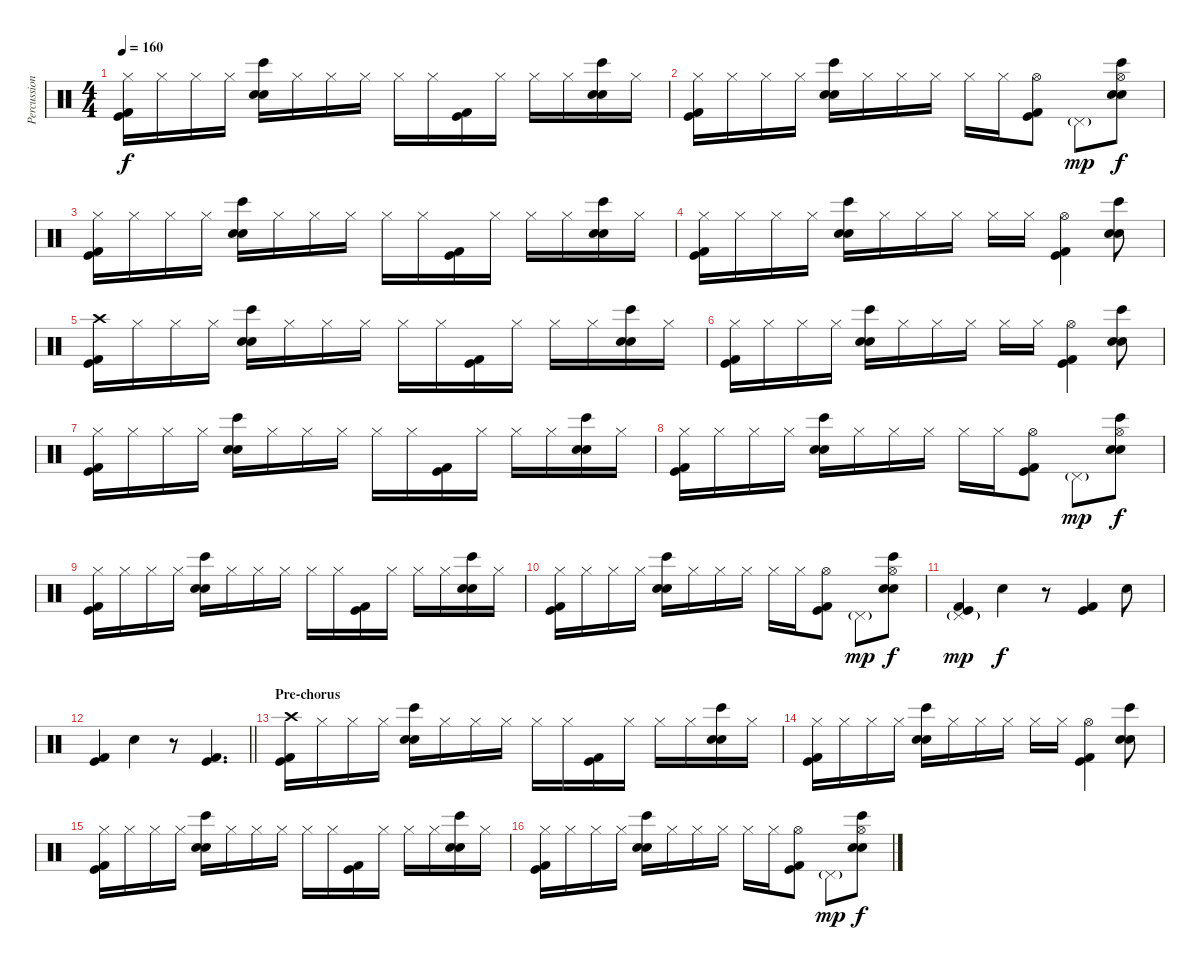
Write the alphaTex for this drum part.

\track ("Percussion" "Percussion") {instrument percussion}
\staff {score}
\articulation defaults
\ts (4 4)
\tempo 160
\clef neutral
\ks c
("Hi-Hat (closed)" "Kick (hit)" "Kick (hit) 2").16{dy f} "Hi-Hat (closed)".16 "Hi-Hat (closed)".16 "Hi-Hat (closed)".16 ("Hand Clap (hit)" "Bongo High (hit)" "Electric Snare (hit)").16 "Hi-Hat (closed)".16 "Hi-Hat (closed)".16 "Hi-Hat (closed)".16 "Hi-Hat (closed)".16 "Hi-Hat (closed)".16 ("Kick (hit)" "Kick (hit) 2").16 "Hi-Hat (closed)".16 "Hi-Hat (closed)".16 "Hi-Hat (closed)".16 ("Hand Clap (hit)" "Bongo High (hit)" "Electric Snare (hit)").16 "Hi-Hat (closed)".16 |
("Hi-Hat (closed)" "Kick (hit)" "Kick (hit) 2").16 "Hi-Hat (closed)".16 "Hi-Hat (closed)".16 "Hi-Hat (closed)".16 ("Hand Clap (hit)" "Bongo High (hit)" "Electric Snare (hit)").16 "Hi-Hat (closed)".16 "Hi-Hat (closed)".16 "Hi-Hat (closed)".16 "Hi-Hat (closed)".16 "Hi-Hat (closed)".16 ("Hi-Hat (open)" "Kick (hit)" "Kick (hit) 2").8 "Pedal Hi-Hat (hit)"{g}.8{dy mp} ("Hi-Hat (open)" "Hand Clap (hit)" "Bongo High (hit)" "Electric Snare (hit)").8{dy f} |
("Hi-Hat (closed)" "Kick (hit)" "Kick (hit) 2").16 "Hi-Hat (closed)".16 "Hi-Hat (closed)".16 "Hi-Hat (closed)".16 ("Hand Clap (hit)" "Bongo High (hit)" "Electric Snare (hit)").16 "Hi-Hat (closed)".16 "Hi-Hat (closed)".16 "Hi-Hat (closed)".16 "Hi-Hat (closed)".16 "Hi-Hat (closed)".16 ("Kick (hit)" "Kick (hit) 2").16 "Hi-Hat (closed)".16 "Hi-Hat (closed)".16 "Hi-Hat (closed)".16 ("Hand Clap (hit)" "Bongo High (hit)" "Electric Snare (hit)").16 "Hi-Hat (closed)".16 |
("Hi-Hat (closed)" "Kick (hit)" "Kick (hit) 2").16 "Hi-Hat (closed)".16 "Hi-Hat (closed)".16 "Hi-Hat (closed)".16 ("Hand Clap (hit)" "Bongo High (hit)" "Electric Snare (hit)").16 "Hi-Hat (closed)".16 "Hi-Hat (closed)".16 "Hi-Hat (closed)".16 "Hi-Hat (closed)".16 "Hi-Hat (closed)".16 ("Hi-Hat (open)" "Kick (hit)" "Kick (hit) 2").4 ("Hand Clap (hit)" "Bongo High (hit)" "Electric Snare (hit)").8 |
("Crash high (hit)" "Kick (hit)" "Kick (hit) 2").16 "Hi-Hat (closed)".16 "Hi-Hat (closed)".16 "Hi-Hat (closed)".16 ("Hand Clap (hit)" "Bongo High (hit)" "Electric Snare (hit)").16 "Hi-Hat (closed)".16 "Hi-Hat (closed)".16 "Hi-Hat (closed)".16 "Hi-Hat (closed)".16 "Hi-Hat (closed)".16 ("Kick (hit)" "Kick (hit) 2").16 "Hi-Hat (closed)".16 "Hi-Hat (closed)".16 "Hi-Hat (closed)".16 ("Hand Clap (hit)" "Bongo High (hit)" "Electric Snare (hit)").16 "Hi-Hat (closed)".16 |
("Hi-Hat (closed)" "Kick (hit)" "Kick (hit) 2").16 "Hi-Hat (closed)".16 "Hi-Hat (closed)".16 "Hi-Hat (closed)".16 ("Hand Clap (hit)" "Bongo High (hit)" "Electric Snare (hit)").16 "Hi-Hat (closed)".16 "Hi-Hat (closed)".16 "Hi-Hat (closed)".16 "Hi-Hat (closed)".16 "Hi-Hat (closed)".16 ("Hi-Hat (open)" "Kick (hit)" "Kick (hit) 2").4 ("Hand Clap (hit)" "Bongo High (hit)" "Electric Snare (hit)").8 |
("Hi-Hat (closed)" "Kick (hit)" "Kick (hit) 2").16 "Hi-Hat (closed)".16 "Hi-Hat (closed)".16 "Hi-Hat (closed)".16 ("Hand Clap (hit)" "Bongo High (hit)" "Electric Snare (hit)").16 "Hi-Hat (closed)".16 "Hi-Hat (closed)".16 "Hi-Hat (closed)".16 "Hi-Hat (closed)".16 "Hi-Hat (closed)".16 ("Kick (hit)" "Kick (hit) 2").16 "Hi-Hat (closed)".16 "Hi-Hat (closed)".16 "Hi-Hat (closed)".16 ("Hand Clap (hit)" "Bongo High (hit)" "Electric Snare (hit)").16 "Hi-Hat (closed)".16 |
("Hi-Hat (closed)" "Kick (hit)" "Kick (hit) 2").16 "Hi-Hat (closed)".16 "Hi-Hat (closed)".16 "Hi-Hat (closed)".16 ("Hand Clap (hit)" "Bongo High (hit)" "Electric Snare (hit)").16 "Hi-Hat (closed)".16 "Hi-Hat (closed)".16 "Hi-Hat (closed)".16 "Hi-Hat (closed)".16 "Hi-Hat (closed)".16 ("Hi-Hat (open)" "Kick (hit)" "Kick (hit) 2").8 "Pedal Hi-Hat (hit)"{g}.8{dy mp} ("Hi-Hat (open)" "Hand Clap (hit)" "Bongo High (hit)" "Electric Snare (hit)").8{dy f} |
("Hi-Hat (closed)" "Kick (hit)" "Kick (hit) 2").16 "Hi-Hat (closed)".16 "Hi-Hat (closed)".16 "Hi-Hat (closed)".16 ("Hand Clap (hit)" "Bongo High (hit)" "Electric Snare (hit)").16 "Hi-Hat (closed)".16 "Hi-Hat (closed)".16 "Hi-Hat (closed)".16 "Hi-Hat (closed)".16 "Hi-Hat (closed)".16 ("Kick (hit)" "Kick (hit) 2").16 "Hi-Hat (closed)".16 "Hi-Hat (closed)".16 "Hi-Hat (closed)".16 ("Hand Clap (hit)" "Bongo High (hit)" "Electric Snare (hit)").16 "Hi-Hat (closed)".16 |
("Hi-Hat (closed)" "Kick (hit)" "Kick (hit) 2").16 "Hi-Hat (closed)".16 "Hi-Hat (closed)".16 "Hi-Hat (closed)".16 ("Hand Clap (hit)" "Bongo High (hit)" "Electric Snare (hit)").16 "Hi-Hat (closed)".16 "Hi-Hat (closed)".16 "Hi-Hat (closed)".16 "Hi-Hat (closed)".16 "Hi-Hat (closed)".16 ("Hi-Hat (open)" "Kick (hit)" "Kick (hit) 2").8 "Pedal Hi-Hat (hit)"{g}.8{dy mp} ("Hi-Hat (open)" "Hand Clap (hit)" "Bongo High (hit)" "Electric Snare (hit)").8{dy f} |
("Pedal Hi-Hat (hit)"{g} "Kick (hit)" "Kick (hit) 2").4{dy mp volume 4} "Electric Snare (hit)".4{dy f volume 13} r.8 ("Kick (hit)" "Kick (hit) 2").4 "Electric Snare (hit)".8 |
\barLineRight lightlight
("Kick (hit)" "Kick (hit) 2").4 "Electric Snare (hit)".4 r.8 ("Kick (hit)" "Kick (hit) 2").4{d} |
\section ("" "Pre-chorus")
("Crash high (hit)" "Kick (hit)" "Kick (hit) 2").16 "Hi-Hat (closed)".16 "Hi-Hat (closed)".16 "Hi-Hat (closed)".16 ("Hand Clap (hit)" "Bongo High (hit)" "Electric Snare (hit)").16 "Hi-Hat (closed)".16 "Hi-Hat (closed)".16 "Hi-Hat (closed)".16 "Hi-Hat (closed)".16 "Hi-Hat (closed)".16 ("Kick (hit)" "Kick (hit) 2").16 "Hi-Hat (closed)".16 "Hi-Hat (closed)".16 "Hi-Hat (closed)".16 ("Hand Clap (hit)" "Bongo High (hit)" "Electric Snare (hit)").16 "Hi-Hat (closed)".16 |
("Hi-Hat (closed)" "Kick (hit)" "Kick (hit) 2").16 "Hi-Hat (closed)".16 "Hi-Hat (closed)".16 "Hi-Hat (closed)".16 ("Hand Clap (hit)" "Bongo High (hit)" "Electric Snare (hit)").16 "Hi-Hat (closed)".16 "Hi-Hat (closed)".16 "Hi-Hat (closed)".16 "Hi-Hat (closed)".16 "Hi-Hat (closed)".16 ("Hi-Hat (open)" "Kick (hit)" "Kick (hit) 2").4 ("Hand Clap (hit)" "Bongo High (hit)" "Electric Snare (hit)").8 |
("Hi-Hat (closed)" "Kick (hit)" "Kick (hit) 2").16 "Hi-Hat (closed)".16 "Hi-Hat (closed)".16 "Hi-Hat (closed)".16 ("Hand Clap (hit)" "Bongo High (hit)" "Electric Snare (hit)").16 "Hi-Hat (closed)".16 "Hi-Hat (closed)".16 "Hi-Hat (closed)".16 "Hi-Hat (closed)".16 "Hi-Hat (closed)".16 ("Kick (hit)" "Kick (hit) 2").16 "Hi-Hat (closed)".16 "Hi-Hat (closed)".16 "Hi-Hat (closed)".16 ("Hand Clap (hit)" "Bongo High (hit)" "Electric Snare (hit)").16 "Hi-Hat (closed)".16 |
("Hi-Hat (closed)" "Kick (hit)" "Kick (hit) 2").16 "Hi-Hat (closed)".16 "Hi-Hat (closed)".16 "Hi-Hat (closed)".16 ("Hand Clap (hit)" "Bongo High (hit)" "Electric Snare (hit)").16 "Hi-Hat (closed)".16 "Hi-Hat (closed)".16 "Hi-Hat (closed)".16 "Hi-Hat (closed)".16 "Hi-Hat (closed)".16 ("Hi-Hat (open)" "Kick (hit)" "Kick (hit) 2").8 "Pedal Hi-Hat (hit)"{g}.8{dy mp} ("Hi-Hat (open)" "Hand Clap (hit)" "Bongo High (hit)" "Electric Snare (hit)").8{dy f}
